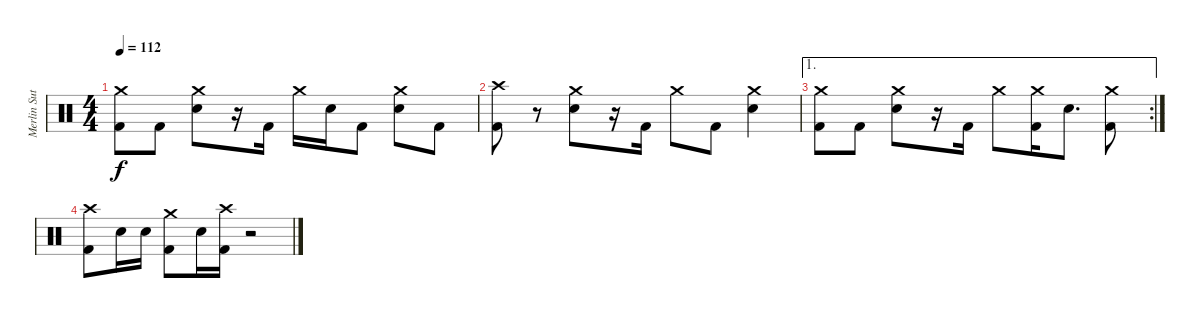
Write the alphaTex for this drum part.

\track ("Merlin Sutter" "Merlin Sut") {instrument percussion}
\staff {score}
\articulation defaults
\ts (4 4)
\tempo 112
\clef neutral
\ks c
("Crash medium (hit)" "Kick (hit) 2").8{dy f} "Kick (hit) 2".8 ("Crash medium (hit)" "Snare (hit) 2").8 r.16 "Kick (hit) 2".16 "Crash medium (hit)".16 "Snare (hit) 2".16 "Kick (hit) 2".8 ("Crash medium (hit)" "Snare (hit) 2").8 "Kick (hit) 2".8 |
("Crash high (hit)" "Kick (hit) 2").8 r.8 ("Crash medium (hit)" "Snare (hit) 2").8 r.16 "Kick (hit) 2".16 "Crash medium (hit)".8 "Kick (hit) 2".8 ("Crash medium (hit)" "Snare (hit) 2").4 |
\ae 1
\rc 2
("Crash medium (hit)" "Kick (hit) 2").8 "Kick (hit) 2".8 ("Crash medium (hit)" "Snare (hit) 2").8 r.16 "Kick (hit) 2".16 "Crash medium (hit)".8 ("Crash medium (hit)" "Kick (hit) 2").16 "Snare (hit) 2".8{d} ("Crash medium (hit)" "Kick (hit) 2").8 |
("Crash high (hit)" "Kick (hit) 2").8 "Snare (hit) 2".16 "Snare (hit) 2".16 ("Crash medium (hit)" "Kick (hit) 2").8 "Snare (hit) 2".16 ("Crash high (hit)" "Kick (hit) 2").16 r.2
